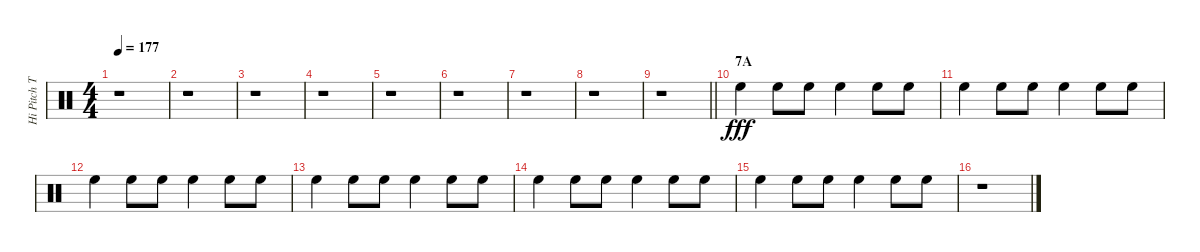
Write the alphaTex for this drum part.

\track ("Hi Pitch Tom" "Hi Pitch T") {instrument percussion}
\staff {score}
\articulation defaults
\ts (4 4)
\tempo 177
\clef neutral
\ks c
r.1{dy p} |
r.1 |
r.1 |
r.1 |
r.1 |
r.1 |
r.1 |
r.1 |
\barLineRight lightlight
r.1 |
\section ("" "7A")
"High Floor Tom (hit)".4{dy fff} "High Floor Tom (hit)".8 "High Floor Tom (hit)".8 "High Floor Tom (hit)".4 "High Floor Tom (hit)".8 "High Floor Tom (hit)".8 |
"High Floor Tom (hit)".4 "High Floor Tom (hit)".8 "High Floor Tom (hit)".8 "High Floor Tom (hit)".4 "High Floor Tom (hit)".8 "High Floor Tom (hit)".8 |
"High Floor Tom (hit)".4 "High Floor Tom (hit)".8 "High Floor Tom (hit)".8 "High Floor Tom (hit)".4 "High Floor Tom (hit)".8 "High Floor Tom (hit)".8 |
"High Floor Tom (hit)".4 "High Floor Tom (hit)".8 "High Floor Tom (hit)".8 "High Floor Tom (hit)".4 "High Floor Tom (hit)".8 "High Floor Tom (hit)".8 |
"High Floor Tom (hit)".4 "High Floor Tom (hit)".8 "High Floor Tom (hit)".8 "High Floor Tom (hit)".4 "High Floor Tom (hit)".8 "High Floor Tom (hit)".8 |
"High Floor Tom (hit)".4 "High Floor Tom (hit)".8 "High Floor Tom (hit)".8 "High Floor Tom (hit)".4 "High Floor Tom (hit)".8 "High Floor Tom (hit)".8 |
r.1
